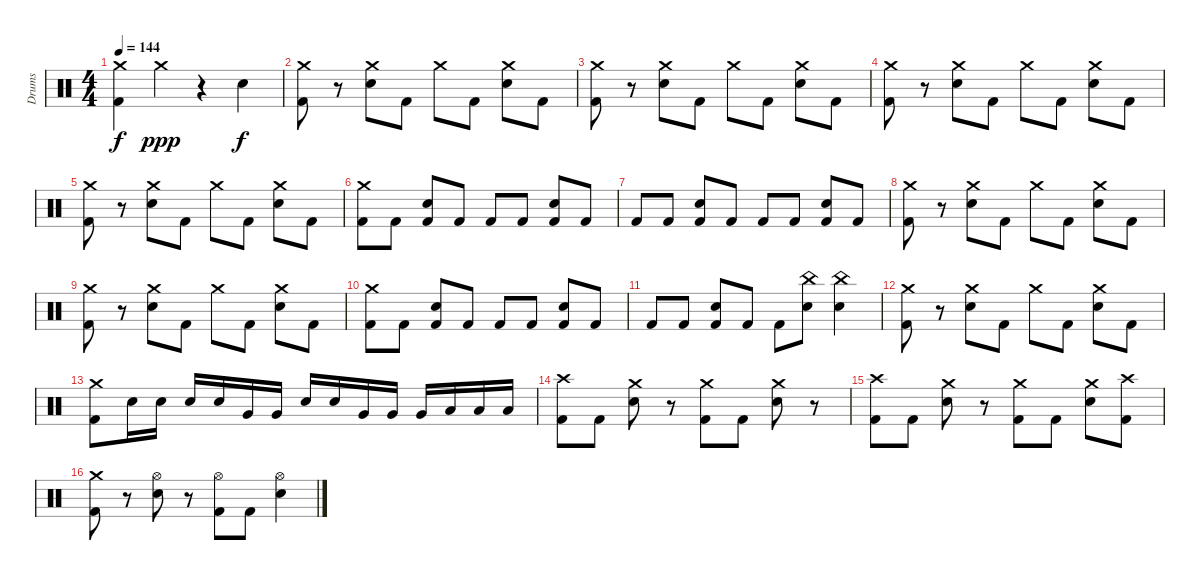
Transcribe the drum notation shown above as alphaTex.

\track ("Drums" "Drums") {instrument percussion}
\staff
\articulation defaults
\ts (4 4)
\tempo 144
\clef neutral
\ks c
("Crash medium (hit)" "Kick (hit) 2").4{dy f} "Crash medium (hit)".4{dy ppp} r.4 "Electric Snare (hit)".4{dy f} |
("Crash medium (hit)" "Kick (hit) 2").8 r.8 ("Crash medium (hit)" "Electric Snare (hit)").8 "Kick (hit) 2".8 "Crash medium (hit)".8 "Kick (hit) 2".8 ("Crash medium (hit)" "Electric Snare (hit)").8 "Kick (hit) 2".8 |
("Crash medium (hit)" "Kick (hit) 2").8 r.8 ("Crash medium (hit)" "Electric Snare (hit)").8 "Kick (hit) 2".8 "Crash medium (hit)".8 "Kick (hit) 2".8 ("Crash medium (hit)" "Electric Snare (hit)").8 "Kick (hit) 2".8 |
("Crash medium (hit)" "Kick (hit) 2").8 r.8 ("Crash medium (hit)" "Electric Snare (hit)").8 "Kick (hit) 2".8 "Crash medium (hit)".8 "Kick (hit) 2".8 ("Crash medium (hit)" "Electric Snare (hit)").8 "Kick (hit) 2".8 |
("Crash medium (hit)" "Kick (hit) 2").8 r.8 ("Crash medium (hit)" "Electric Snare (hit)").8 "Kick (hit) 2".8 "Crash medium (hit)".8 "Kick (hit) 2".8 ("Crash medium (hit)" "Electric Snare (hit)").8 "Kick (hit) 2".8 |
("Crash medium (hit)" "Kick (hit) 2").8 "Kick (hit) 2".8 ("Electric Snare (hit)" "Kick (hit) 2").8 "Kick (hit) 2".8 "Kick (hit) 2".8 "Kick (hit) 2".8 ("Electric Snare (hit)" "Kick (hit) 2").8 "Kick (hit) 2".8 |
"Kick (hit) 2".8 "Kick (hit) 2".8 ("Electric Snare (hit)" "Kick (hit) 2").8 "Kick (hit) 2".8 "Kick (hit) 2".8 "Kick (hit) 2".8 ("Electric Snare (hit)" "Kick (hit) 2").8 "Kick (hit) 2".8 |
("Crash medium (hit)" "Kick (hit) 2").8 r.8 ("Crash medium (hit)" "Electric Snare (hit)").8 "Kick (hit) 2".8 "Crash medium (hit)".8 "Kick (hit) 2".8 ("Crash medium (hit)" "Electric Snare (hit)").8 "Kick (hit) 2".8 |
("Crash medium (hit)" "Kick (hit) 2").8 r.8 ("Crash medium (hit)" "Electric Snare (hit)").8 "Kick (hit) 2".8 "Crash medium (hit)".8 "Kick (hit) 2".8 ("Crash medium (hit)" "Electric Snare (hit)").8 "Kick (hit) 2".8 |
("Crash medium (hit)" "Kick (hit) 2").8 "Kick (hit) 2".8 ("Electric Snare (hit)" "Kick (hit) 2").8 "Kick (hit) 2".8 "Kick (hit) 2".8 "Kick (hit) 2".8 ("Electric Snare (hit)" "Kick (hit) 2").8 "Kick (hit) 2".8 |
"Kick (hit) 2".8 "Kick (hit) 2".8 ("Electric Snare (hit)" "Kick (hit) 2").8 "Kick (hit) 2".8 "Kick (hit) 2".8 ("China (hit)" "Electric Snare (hit)").8 ("China (hit)" "Electric Snare (hit)").4 |
("Crash medium (hit)" "Kick (hit) 2").8 r.8 ("Crash medium (hit)" "Electric Snare (hit)").8 "Kick (hit) 2".8 "Crash medium (hit)".8 "Kick (hit) 2".8 ("Crash medium (hit)" "Electric Snare (hit)").8 "Kick (hit) 2".8 |
("Crash medium (hit)" "Kick (hit) 2").8 "Electric Snare (hit)".16 "Electric Snare (hit)".16 "Electric Snare (hit)".16 "Electric Snare (hit)".16 "Very Low Tom (hit)".16 "Very Low Tom (hit)".16 "Electric Snare (hit)".16 "Electric Snare (hit)".16 "Very Low Tom (hit)".16 "Very Low Tom (hit)".16 "Very Low Tom (hit)".16 "Low Floor Tom (hit)".16 "Low Floor Tom (hit)".16 "Low Floor Tom (hit)".16 |
("Crash high (hit)" "Kick (hit) 2").8 "Kick (hit) 2".8 ("Crash medium (hit)" "Electric Snare (hit)").8 r.8 ("Crash medium (hit)" "Kick (hit) 2").8 "Kick (hit) 2".8 ("Crash medium (hit)" "Electric Snare (hit)").8 r.8 |
("Crash high (hit)" "Kick (hit) 2").8 "Kick (hit) 2".8 ("Crash medium (hit)" "Electric Snare (hit)").8 r.8 ("Crash medium (hit)" "Kick (hit) 2").8 "Kick (hit) 2".8 ("Crash medium (hit)" "Electric Snare (hit)").8 ("Crash high (hit)" "Kick (hit) 2").8 |
("Crash medium (hit)" "Kick (hit) 2").8 r.8 ("Hi-Hat (open)" "Electric Snare (hit)").8 r.8 ("Hi-Hat (open)" "Kick (hit) 2").8 "Kick (hit) 2".8 ("Hi-Hat (open)" "Electric Snare (hit)").4
